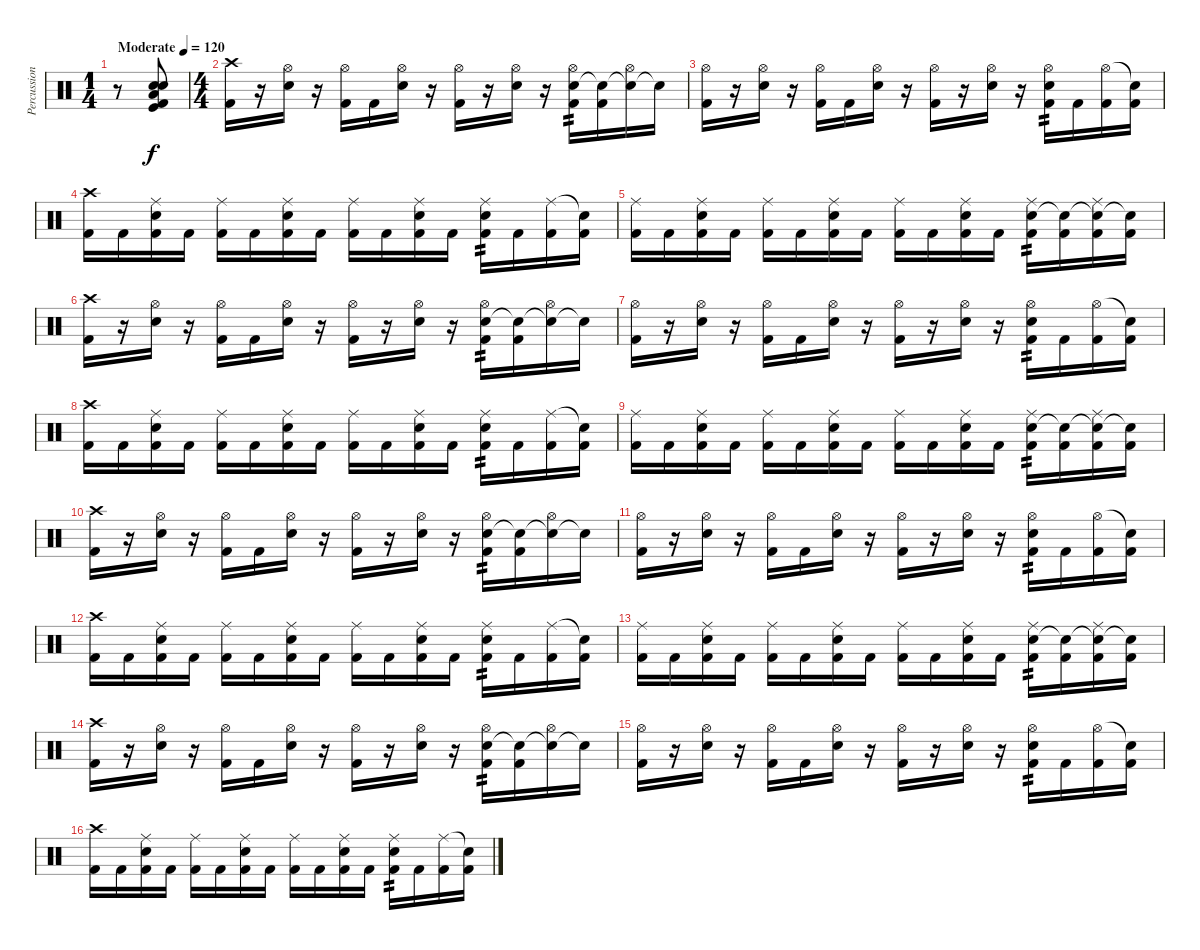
\track ("Percussion" "Percussion") {instrument percussion}
\staff {score}
\articulation defaults
\ts (1 4)
\tempo (120 "Moderate")
\clef neutral
\ks c
r.8{dy f} ("Kick (hit)" "Kick (hit) 2" "Snare (hit) 2" "Electric Snare (hit)" "Low Tom (hit)").8 |
\ts (4 4)
("Crash high (hit)" "Kick (hit) 2").16 r.16 ("Electric Snare (hit)" "Hi-Hat (open)").16 r.16 ("Hi-Hat (open)" "Kick (hit) 2").16 "Kick (hit) 2".16 ("Electric Snare (hit)" "Hi-Hat (open)").16 r.16 ("Hi-Hat (open)" "Kick (hit) 2").16 r.16 ("Electric Snare (hit)" "Hi-Hat (open)").16 r.16 ("Electric Snare (hit)" "Hi-Hat (open)" "Kick (hit) 2").16{tp 2} ("Snare (hit)"{t} "Kick (hit) 2").16 ("Electric Snare (hit)"{t} "Hi-Hat (open)").16 "Snare (hit)"{t}.16 |
("Hi-Hat (open)" "Kick (hit) 2").16 r.16 ("Electric Snare (hit)" "Hi-Hat (open)").16 r.16 ("Hi-Hat (open)" "Kick (hit) 2").16 "Kick (hit) 2".16 ("Electric Snare (hit)" "Hi-Hat (open)").16 r.16 ("Hi-Hat (open)" "Kick (hit) 2").16 r.16 ("Electric Snare (hit)" "Hi-Hat (open)").16 r.16 ("Electric Snare (hit)" "Hi-Hat (open)" "Kick (hit) 2").16{tp 2} "Kick (hit) 2".16 ("Hi-Hat (open)" "Kick (hit) 2").16 ("Snare (hit)"{t} "Kick (hit) 2").16 |
("Crash high (hit)" "Kick (hit) 2").16 "Kick (hit) 2".16 ("Electric Snare (hit)" "Ride (middle)" "Kick (hit) 2").16 "Kick (hit) 2".16 ("Ride (middle)" "Kick (hit) 2").16 "Kick (hit) 2".16 ("Electric Snare (hit)" "Ride (middle)" "Kick (hit) 2").16 "Kick (hit) 2".16 ("Ride (middle)" "Kick (hit) 2").16 "Kick (hit) 2".16 ("Electric Snare (hit)" "Ride (middle)" "Kick (hit) 2").16 "Kick (hit) 2".16 ("Electric Snare (hit)" "Ride (middle)" "Kick (hit) 2").16{tp 2} "Kick (hit) 2".16 ("Ride (middle)" "Kick (hit) 2").16 ("Snare (hit)"{t} "Kick (hit) 2").16 |
("Ride (middle)" "Kick (hit) 2").16 "Kick (hit) 2".16 ("Electric Snare (hit)" "Ride (middle)" "Kick (hit) 2").16 "Kick (hit) 2".16 ("Ride (middle)" "Kick (hit) 2").16 "Kick (hit) 2".16 ("Electric Snare (hit)" "Ride (middle)" "Kick (hit) 2").16 "Kick (hit) 2".16 ("Ride (middle)" "Kick (hit) 2").16 "Kick (hit) 2".16 ("Electric Snare (hit)" "Ride (middle)" "Kick (hit) 2").16 "Kick (hit) 2".16 ("Electric Snare (hit)" "Ride (middle)" "Kick (hit) 2").16{tp 2} ("Snare (hit)"{t} "Kick (hit) 2").16 ("Electric Snare (hit)"{t} "Ride (middle)" "Kick (hit) 2").16 ("Snare (hit)"{t} "Kick (hit) 2").16 |
("Crash high (hit)" "Kick (hit) 2").16 r.16 ("Electric Snare (hit)" "Hi-Hat (open)").16 r.16 ("Hi-Hat (open)" "Kick (hit) 2").16 "Kick (hit) 2".16 ("Electric Snare (hit)" "Hi-Hat (open)").16 r.16 ("Hi-Hat (open)" "Kick (hit) 2").16 r.16 ("Electric Snare (hit)" "Hi-Hat (open)").16 r.16 ("Electric Snare (hit)" "Hi-Hat (open)" "Kick (hit) 2").16{tp 2} ("Snare (hit)"{t} "Kick (hit) 2").16 ("Electric Snare (hit)"{t} "Hi-Hat (open)").16 "Snare (hit)"{t}.16 |
("Hi-Hat (open)" "Kick (hit) 2").16 r.16 ("Electric Snare (hit)" "Hi-Hat (open)").16 r.16 ("Hi-Hat (open)" "Kick (hit) 2").16 "Kick (hit) 2".16 ("Electric Snare (hit)" "Hi-Hat (open)").16 r.16 ("Hi-Hat (open)" "Kick (hit) 2").16 r.16 ("Electric Snare (hit)" "Hi-Hat (open)").16 r.16 ("Electric Snare (hit)" "Hi-Hat (open)" "Kick (hit) 2").16{tp 2} "Kick (hit) 2".16 ("Hi-Hat (open)" "Kick (hit) 2").16 ("Snare (hit)"{t} "Kick (hit) 2").16 |
("Crash high (hit)" "Kick (hit) 2").16 "Kick (hit) 2".16 ("Electric Snare (hit)" "Ride (middle)" "Kick (hit) 2").16 "Kick (hit) 2".16 ("Ride (middle)" "Kick (hit) 2").16 "Kick (hit) 2".16 ("Electric Snare (hit)" "Ride (middle)" "Kick (hit) 2").16 "Kick (hit) 2".16 ("Ride (middle)" "Kick (hit) 2").16 "Kick (hit) 2".16 ("Electric Snare (hit)" "Ride (middle)" "Kick (hit) 2").16 "Kick (hit) 2".16 ("Electric Snare (hit)" "Ride (middle)" "Kick (hit) 2").16{tp 2} "Kick (hit) 2".16 ("Ride (middle)" "Kick (hit) 2").16 ("Snare (hit)"{t} "Kick (hit) 2").16 |
("Ride (middle)" "Kick (hit) 2").16 "Kick (hit) 2".16 ("Electric Snare (hit)" "Ride (middle)" "Kick (hit) 2").16 "Kick (hit) 2".16 ("Ride (middle)" "Kick (hit) 2").16 "Kick (hit) 2".16 ("Electric Snare (hit)" "Ride (middle)" "Kick (hit) 2").16 "Kick (hit) 2".16 ("Ride (middle)" "Kick (hit) 2").16 "Kick (hit) 2".16 ("Electric Snare (hit)" "Ride (middle)" "Kick (hit) 2").16 "Kick (hit) 2".16 ("Electric Snare (hit)" "Ride (middle)" "Kick (hit) 2").16{tp 2} ("Snare (hit)"{t} "Kick (hit) 2").16 ("Electric Snare (hit)"{t} "Ride (middle)" "Kick (hit) 2").16 ("Snare (hit)"{t} "Kick (hit) 2").16 |
("Crash high (hit)" "Kick (hit) 2").16 r.16 ("Electric Snare (hit)" "Hi-Hat (open)").16 r.16 ("Hi-Hat (open)" "Kick (hit) 2").16 "Kick (hit) 2".16 ("Electric Snare (hit)" "Hi-Hat (open)").16 r.16 ("Hi-Hat (open)" "Kick (hit) 2").16 r.16 ("Electric Snare (hit)" "Hi-Hat (open)").16 r.16 ("Electric Snare (hit)" "Hi-Hat (open)" "Kick (hit) 2").16{tp 2} ("Snare (hit)"{t} "Kick (hit) 2").16 ("Electric Snare (hit)"{t} "Hi-Hat (open)").16 "Snare (hit)"{t}.16 |
("Hi-Hat (open)" "Kick (hit) 2").16 r.16 ("Electric Snare (hit)" "Hi-Hat (open)").16 r.16 ("Hi-Hat (open)" "Kick (hit) 2").16 "Kick (hit) 2".16 ("Electric Snare (hit)" "Hi-Hat (open)").16 r.16 ("Hi-Hat (open)" "Kick (hit) 2").16 r.16 ("Electric Snare (hit)" "Hi-Hat (open)").16 r.16 ("Electric Snare (hit)" "Hi-Hat (open)" "Kick (hit) 2").16{tp 2} "Kick (hit) 2".16 ("Hi-Hat (open)" "Kick (hit) 2").16 ("Snare (hit)"{t} "Kick (hit) 2").16 |
("Crash high (hit)" "Kick (hit) 2").16 "Kick (hit) 2".16 ("Electric Snare (hit)" "Ride (middle)" "Kick (hit) 2").16 "Kick (hit) 2".16 ("Ride (middle)" "Kick (hit) 2").16 "Kick (hit) 2".16 ("Electric Snare (hit)" "Ride (middle)" "Kick (hit) 2").16 "Kick (hit) 2".16 ("Ride (middle)" "Kick (hit) 2").16 "Kick (hit) 2".16 ("Electric Snare (hit)" "Ride (middle)" "Kick (hit) 2").16 "Kick (hit) 2".16 ("Electric Snare (hit)" "Ride (middle)" "Kick (hit) 2").16{tp 2} "Kick (hit) 2".16 ("Ride (middle)" "Kick (hit) 2").16 ("Snare (hit)"{t} "Kick (hit) 2").16 |
("Ride (middle)" "Kick (hit) 2").16 "Kick (hit) 2".16 ("Electric Snare (hit)" "Ride (middle)" "Kick (hit) 2").16 "Kick (hit) 2".16 ("Ride (middle)" "Kick (hit) 2").16 "Kick (hit) 2".16 ("Electric Snare (hit)" "Ride (middle)" "Kick (hit) 2").16 "Kick (hit) 2".16 ("Ride (middle)" "Kick (hit) 2").16 "Kick (hit) 2".16 ("Electric Snare (hit)" "Ride (middle)" "Kick (hit) 2").16 "Kick (hit) 2".16 ("Electric Snare (hit)" "Ride (middle)" "Kick (hit) 2").16{tp 2} ("Snare (hit)"{t} "Kick (hit) 2").16 ("Electric Snare (hit)"{t} "Ride (middle)" "Kick (hit) 2").16 ("Snare (hit)"{t} "Kick (hit) 2").16 |
("Crash high (hit)" "Kick (hit) 2").16 r.16 ("Electric Snare (hit)" "Hi-Hat (open)").16 r.16 ("Hi-Hat (open)" "Kick (hit) 2").16 "Kick (hit) 2".16 ("Electric Snare (hit)" "Hi-Hat (open)").16 r.16 ("Hi-Hat (open)" "Kick (hit) 2").16 r.16 ("Electric Snare (hit)" "Hi-Hat (open)").16 r.16 ("Electric Snare (hit)" "Hi-Hat (open)" "Kick (hit) 2").16{tp 2} ("Snare (hit)"{t} "Kick (hit) 2").16 ("Electric Snare (hit)"{t} "Hi-Hat (open)").16 "Snare (hit)"{t}.16 |
("Hi-Hat (open)" "Kick (hit) 2").16 r.16 ("Electric Snare (hit)" "Hi-Hat (open)").16 r.16 ("Hi-Hat (open)" "Kick (hit) 2").16 "Kick (hit) 2".16 ("Electric Snare (hit)" "Hi-Hat (open)").16 r.16 ("Hi-Hat (open)" "Kick (hit) 2").16 r.16 ("Electric Snare (hit)" "Hi-Hat (open)").16 r.16 ("Electric Snare (hit)" "Hi-Hat (open)" "Kick (hit) 2").16{tp 2} "Kick (hit) 2".16 ("Hi-Hat (open)" "Kick (hit) 2").16 ("Snare (hit)"{t} "Kick (hit) 2").16 |
("Crash high (hit)" "Kick (hit) 2").16 "Kick (hit) 2".16 ("Electric Snare (hit)" "Ride (middle)" "Kick (hit) 2").16 "Kick (hit) 2".16 ("Ride (middle)" "Kick (hit) 2").16 "Kick (hit) 2".16 ("Electric Snare (hit)" "Ride (middle)" "Kick (hit) 2").16 "Kick (hit) 2".16 ("Ride (middle)" "Kick (hit) 2").16 "Kick (hit) 2".16 ("Electric Snare (hit)" "Ride (middle)" "Kick (hit) 2").16 "Kick (hit) 2".16 ("Electric Snare (hit)" "Ride (middle)" "Kick (hit) 2").16{tp 2} "Kick (hit) 2".16 ("Ride (middle)" "Kick (hit) 2").16 ("Snare (hit)"{t} "Kick (hit) 2").16
